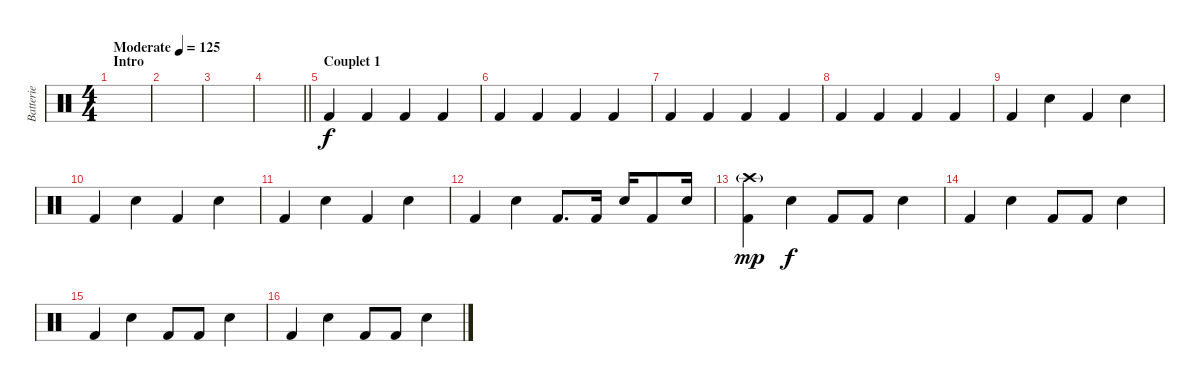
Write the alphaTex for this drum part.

\track ("Batterie" "Batterie") {instrument percussion}
\staff {score}
\articulation defaults
\ts (4 4)
\section ("" "Intro")
\tempo (125 "Moderate")
\clef neutral
\ks c
|
|
|
\barLineRight lightlight
|
\section ("" "Couplet 1")
"Kick (hit) 2".4 "Kick (hit) 2".4 "Kick (hit) 2".4 "Kick (hit) 2".4 |
"Kick (hit) 2".4 "Kick (hit) 2".4 "Kick (hit) 2".4 "Kick (hit) 2".4 |
"Kick (hit) 2".4 "Kick (hit) 2".4 "Kick (hit) 2".4 "Kick (hit) 2".4 |
"Kick (hit) 2".4 "Kick (hit) 2".4 "Kick (hit) 2".4 "Kick (hit) 2".4 |
"Kick (hit) 2".4 "Electric Snare (hit)".4 "Kick (hit) 2".4 "Electric Snare (hit)".4 |
"Kick (hit) 2".4 "Electric Snare (hit)".4 "Kick (hit) 2".4 "Electric Snare (hit)".4 |
"Kick (hit) 2".4 "Electric Snare (hit)".4 "Kick (hit) 2".4 "Electric Snare (hit)".4 |
"Kick (hit) 2".4 "Electric Snare (hit)".4 "Kick (hit) 2".8{d} "Kick (hit) 2".16 "Electric Snare (hit)".16 "Kick (hit) 2".8 "Electric Snare (hit)".16 |
("Crash high (hit)"{g} "Kick (hit) 2").4{dy mp} "Electric Snare (hit)".4{dy f} "Kick (hit) 2".8 "Kick (hit) 2".8 "Electric Snare (hit)".4 |
"Kick (hit) 2".4 "Electric Snare (hit)".4 "Kick (hit) 2".8 "Kick (hit) 2".8 "Electric Snare (hit)".4 |
"Kick (hit) 2".4 "Electric Snare (hit)".4 "Kick (hit) 2".8 "Kick (hit) 2".8 "Electric Snare (hit)".4 |
"Kick (hit) 2".4 "Electric Snare (hit)".4 "Kick (hit) 2".8 "Kick (hit) 2".8 "Electric Snare (hit)".4
